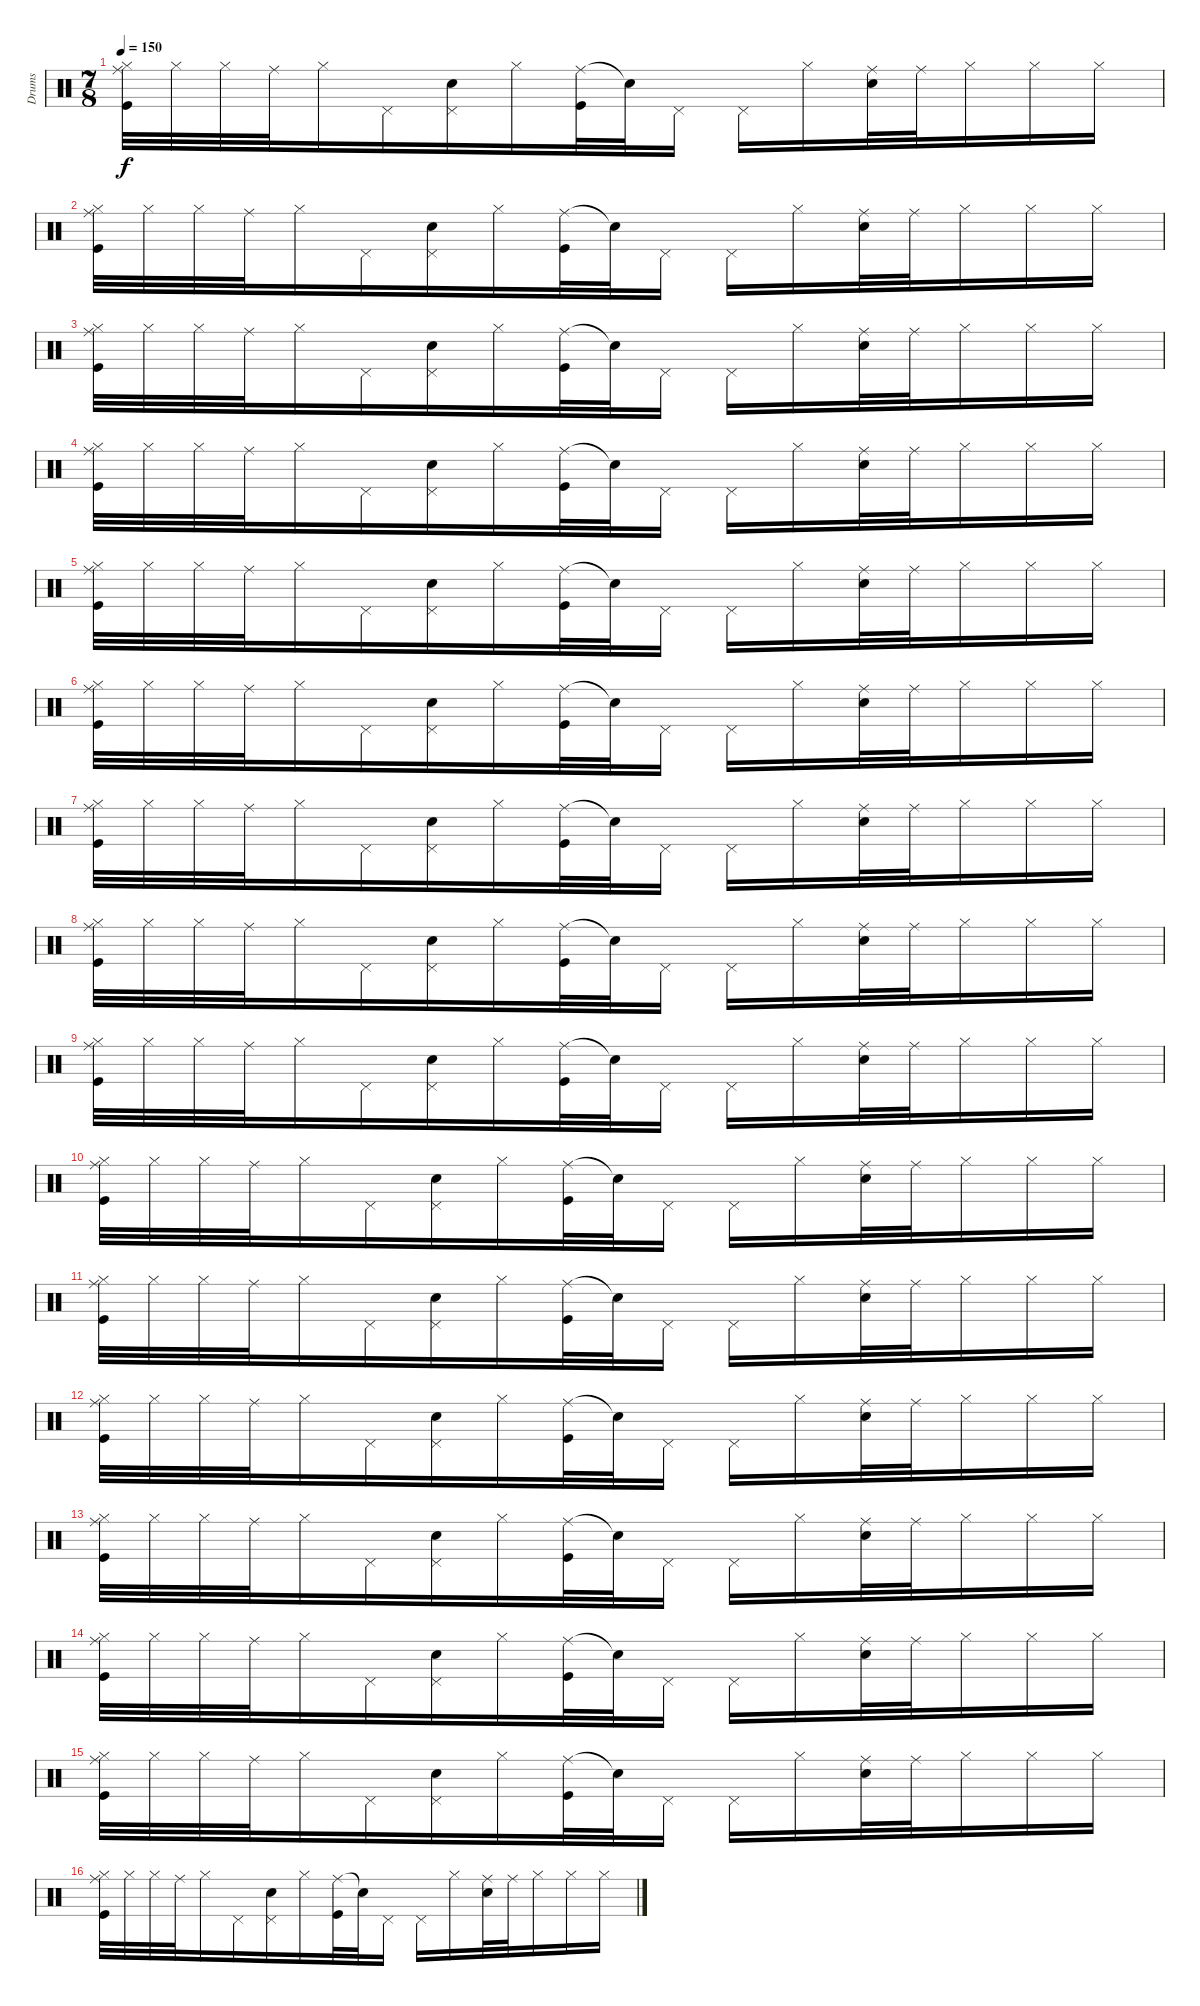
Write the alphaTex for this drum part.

\track ("Drums" "Drums") {instrument percussion}
\staff {score}
\articulation defaults
\ts (7 8)
\tempo 150
\clef neutral
\ks c
("Hi-Hat (closed)" "Ride (middle)" "Kick (hit)").32{dy f} "Hi-Hat (closed)".32 "Hi-Hat (closed)".32 "Ride (middle)".32 "Hi-Hat (closed)".16 "Pedal Hi-Hat (hit)".16 ("Pedal Hi-Hat (hit)" "Snare (hit) 2").16 "Hi-Hat (closed)".16 ("Ride (middle)" "Kick (hit)").32 "Snare (hit)"{t}.32 "Pedal Hi-Hat (hit)".16 "Pedal Hi-Hat (hit)".16 "Hi-Hat (closed)".16 ("Ride (middle)" "Snare (hit) 2").32 "Ride (middle)".32 "Hi-Hat (closed)".16 "Hi-Hat (closed)".16 "Hi-Hat (closed)".16 |
("Hi-Hat (closed)" "Ride (middle)" "Kick (hit)").32 "Hi-Hat (closed)".32 "Hi-Hat (closed)".32 "Ride (middle)".32 "Hi-Hat (closed)".16 "Pedal Hi-Hat (hit)".16 ("Pedal Hi-Hat (hit)" "Snare (hit) 2").16 "Hi-Hat (closed)".16 ("Ride (middle)" "Kick (hit)").32 "Snare (hit)"{t}.32 "Pedal Hi-Hat (hit)".16 "Pedal Hi-Hat (hit)".16 "Hi-Hat (closed)".16 ("Ride (middle)" "Snare (hit) 2").32 "Ride (middle)".32 "Hi-Hat (closed)".16 "Hi-Hat (closed)".16 "Hi-Hat (closed)".16 |
("Hi-Hat (closed)" "Ride (middle)" "Kick (hit)").32 "Hi-Hat (closed)".32 "Hi-Hat (closed)".32 "Ride (middle)".32 "Hi-Hat (closed)".16 "Pedal Hi-Hat (hit)".16 ("Pedal Hi-Hat (hit)" "Snare (hit) 2").16 "Hi-Hat (closed)".16 ("Ride (middle)" "Kick (hit)").32 "Snare (hit)"{t}.32 "Pedal Hi-Hat (hit)".16 "Pedal Hi-Hat (hit)".16 "Hi-Hat (closed)".16 ("Ride (middle)" "Snare (hit) 2").32 "Ride (middle)".32 "Hi-Hat (closed)".16 "Hi-Hat (closed)".16 "Hi-Hat (closed)".16 |
("Hi-Hat (closed)" "Ride (middle)" "Kick (hit)").32 "Hi-Hat (closed)".32 "Hi-Hat (closed)".32 "Ride (middle)".32 "Hi-Hat (closed)".16 "Pedal Hi-Hat (hit)".16 ("Pedal Hi-Hat (hit)" "Snare (hit) 2").16 "Hi-Hat (closed)".16 ("Ride (middle)" "Kick (hit)").32 "Snare (hit)"{t}.32 "Pedal Hi-Hat (hit)".16 "Pedal Hi-Hat (hit)".16 "Hi-Hat (closed)".16 ("Ride (middle)" "Snare (hit) 2").32 "Ride (middle)".32 "Hi-Hat (closed)".16 "Hi-Hat (closed)".16 "Hi-Hat (closed)".16 |
("Hi-Hat (closed)" "Ride (middle)" "Kick (hit)").32 "Hi-Hat (closed)".32 "Hi-Hat (closed)".32 "Ride (middle)".32 "Hi-Hat (closed)".16 "Pedal Hi-Hat (hit)".16 ("Pedal Hi-Hat (hit)" "Snare (hit) 2").16 "Hi-Hat (closed)".16 ("Ride (middle)" "Kick (hit)").32 "Snare (hit)"{t}.32 "Pedal Hi-Hat (hit)".16 "Pedal Hi-Hat (hit)".16 "Hi-Hat (closed)".16 ("Ride (middle)" "Snare (hit) 2").32 "Ride (middle)".32 "Hi-Hat (closed)".16 "Hi-Hat (closed)".16 "Hi-Hat (closed)".16 |
("Hi-Hat (closed)" "Ride (middle)" "Kick (hit)").32 "Hi-Hat (closed)".32 "Hi-Hat (closed)".32 "Ride (middle)".32 "Hi-Hat (closed)".16 "Pedal Hi-Hat (hit)".16 ("Pedal Hi-Hat (hit)" "Snare (hit) 2").16 "Hi-Hat (closed)".16 ("Ride (middle)" "Kick (hit)").32 "Snare (hit)"{t}.32 "Pedal Hi-Hat (hit)".16 "Pedal Hi-Hat (hit)".16 "Hi-Hat (closed)".16 ("Ride (middle)" "Snare (hit) 2").32 "Ride (middle)".32 "Hi-Hat (closed)".16 "Hi-Hat (closed)".16 "Hi-Hat (closed)".16 |
("Hi-Hat (closed)" "Ride (middle)" "Kick (hit)").32 "Hi-Hat (closed)".32 "Hi-Hat (closed)".32 "Ride (middle)".32 "Hi-Hat (closed)".16 "Pedal Hi-Hat (hit)".16 ("Pedal Hi-Hat (hit)" "Snare (hit) 2").16 "Hi-Hat (closed)".16 ("Ride (middle)" "Kick (hit)").32 "Snare (hit)"{t}.32 "Pedal Hi-Hat (hit)".16 "Pedal Hi-Hat (hit)".16 "Hi-Hat (closed)".16 ("Ride (middle)" "Snare (hit) 2").32 "Ride (middle)".32 "Hi-Hat (closed)".16 "Hi-Hat (closed)".16 "Hi-Hat (closed)".16 |
("Hi-Hat (closed)" "Ride (middle)" "Kick (hit)").32 "Hi-Hat (closed)".32 "Hi-Hat (closed)".32 "Ride (middle)".32 "Hi-Hat (closed)".16 "Pedal Hi-Hat (hit)".16 ("Pedal Hi-Hat (hit)" "Snare (hit) 2").16 "Hi-Hat (closed)".16 ("Ride (middle)" "Kick (hit)").32 "Snare (hit)"{t}.32 "Pedal Hi-Hat (hit)".16 "Pedal Hi-Hat (hit)".16 "Hi-Hat (closed)".16 ("Ride (middle)" "Snare (hit) 2").32 "Ride (middle)".32 "Hi-Hat (closed)".16 "Hi-Hat (closed)".16 "Hi-Hat (closed)".16 |
("Hi-Hat (closed)" "Ride (middle)" "Kick (hit)").32 "Hi-Hat (closed)".32 "Hi-Hat (closed)".32 "Ride (middle)".32 "Hi-Hat (closed)".16 "Pedal Hi-Hat (hit)".16 ("Pedal Hi-Hat (hit)" "Snare (hit) 2").16 "Hi-Hat (closed)".16 ("Ride (middle)" "Kick (hit)").32 "Snare (hit)"{t}.32 "Pedal Hi-Hat (hit)".16 "Pedal Hi-Hat (hit)".16 "Hi-Hat (closed)".16 ("Ride (middle)" "Snare (hit) 2").32 "Ride (middle)".32 "Hi-Hat (closed)".16 "Hi-Hat (closed)".16 "Hi-Hat (closed)".16 |
("Hi-Hat (closed)" "Ride (middle)" "Kick (hit)").32 "Hi-Hat (closed)".32 "Hi-Hat (closed)".32 "Ride (middle)".32 "Hi-Hat (closed)".16 "Pedal Hi-Hat (hit)".16 ("Pedal Hi-Hat (hit)" "Snare (hit) 2").16 "Hi-Hat (closed)".16 ("Ride (middle)" "Kick (hit)").32 "Snare (hit)"{t}.32 "Pedal Hi-Hat (hit)".16 "Pedal Hi-Hat (hit)".16 "Hi-Hat (closed)".16 ("Ride (middle)" "Snare (hit) 2").32 "Ride (middle)".32 "Hi-Hat (closed)".16 "Hi-Hat (closed)".16 "Hi-Hat (closed)".16 |
("Hi-Hat (closed)" "Ride (middle)" "Kick (hit)").32 "Hi-Hat (closed)".32 "Hi-Hat (closed)".32 "Ride (middle)".32 "Hi-Hat (closed)".16 "Pedal Hi-Hat (hit)".16 ("Pedal Hi-Hat (hit)" "Snare (hit) 2").16 "Hi-Hat (closed)".16 ("Ride (middle)" "Kick (hit)").32 "Snare (hit)"{t}.32 "Pedal Hi-Hat (hit)".16 "Pedal Hi-Hat (hit)".16 "Hi-Hat (closed)".16 ("Ride (middle)" "Snare (hit) 2").32 "Ride (middle)".32 "Hi-Hat (closed)".16 "Hi-Hat (closed)".16 "Hi-Hat (closed)".16 |
("Hi-Hat (closed)" "Ride (middle)" "Kick (hit)").32 "Hi-Hat (closed)".32 "Hi-Hat (closed)".32 "Ride (middle)".32 "Hi-Hat (closed)".16 "Pedal Hi-Hat (hit)".16 ("Pedal Hi-Hat (hit)" "Snare (hit) 2").16 "Hi-Hat (closed)".16 ("Ride (middle)" "Kick (hit)").32 "Snare (hit)"{t}.32 "Pedal Hi-Hat (hit)".16 "Pedal Hi-Hat (hit)".16 "Hi-Hat (closed)".16 ("Ride (middle)" "Snare (hit) 2").32 "Ride (middle)".32 "Hi-Hat (closed)".16 "Hi-Hat (closed)".16 "Hi-Hat (closed)".16 |
("Hi-Hat (closed)" "Ride (middle)" "Kick (hit)").32 "Hi-Hat (closed)".32 "Hi-Hat (closed)".32 "Ride (middle)".32 "Hi-Hat (closed)".16 "Pedal Hi-Hat (hit)".16 ("Pedal Hi-Hat (hit)" "Snare (hit) 2").16 "Hi-Hat (closed)".16 ("Ride (middle)" "Kick (hit)").32 "Snare (hit)"{t}.32 "Pedal Hi-Hat (hit)".16 "Pedal Hi-Hat (hit)".16 "Hi-Hat (closed)".16 ("Ride (middle)" "Snare (hit) 2").32 "Ride (middle)".32 "Hi-Hat (closed)".16 "Hi-Hat (closed)".16 "Hi-Hat (closed)".16 |
("Hi-Hat (closed)" "Ride (middle)" "Kick (hit)").32 "Hi-Hat (closed)".32 "Hi-Hat (closed)".32 "Ride (middle)".32 "Hi-Hat (closed)".16 "Pedal Hi-Hat (hit)".16 ("Pedal Hi-Hat (hit)" "Snare (hit) 2").16 "Hi-Hat (closed)".16 ("Ride (middle)" "Kick (hit)").32 "Snare (hit)"{t}.32 "Pedal Hi-Hat (hit)".16 "Pedal Hi-Hat (hit)".16 "Hi-Hat (closed)".16 ("Ride (middle)" "Snare (hit) 2").32 "Ride (middle)".32 "Hi-Hat (closed)".16 "Hi-Hat (closed)".16 "Hi-Hat (closed)".16 |
("Hi-Hat (closed)" "Ride (middle)" "Kick (hit)").32 "Hi-Hat (closed)".32 "Hi-Hat (closed)".32 "Ride (middle)".32 "Hi-Hat (closed)".16 "Pedal Hi-Hat (hit)".16 ("Pedal Hi-Hat (hit)" "Snare (hit) 2").16 "Hi-Hat (closed)".16 ("Ride (middle)" "Kick (hit)").32 "Snare (hit)"{t}.32 "Pedal Hi-Hat (hit)".16 "Pedal Hi-Hat (hit)".16 "Hi-Hat (closed)".16 ("Ride (middle)" "Snare (hit) 2").32 "Ride (middle)".32 "Hi-Hat (closed)".16 "Hi-Hat (closed)".16 "Hi-Hat (closed)".16 |
("Hi-Hat (closed)" "Ride (middle)" "Kick (hit)").32 "Hi-Hat (closed)".32 "Hi-Hat (closed)".32 "Ride (middle)".32 "Hi-Hat (closed)".16 "Pedal Hi-Hat (hit)".16 ("Pedal Hi-Hat (hit)" "Snare (hit) 2").16 "Hi-Hat (closed)".16 ("Ride (middle)" "Kick (hit)").32 "Snare (hit)"{t}.32 "Pedal Hi-Hat (hit)".16 "Pedal Hi-Hat (hit)".16 "Hi-Hat (closed)".16 ("Ride (middle)" "Snare (hit) 2").32 "Ride (middle)".32 "Hi-Hat (closed)".16 "Hi-Hat (closed)".16 "Hi-Hat (closed)".16
